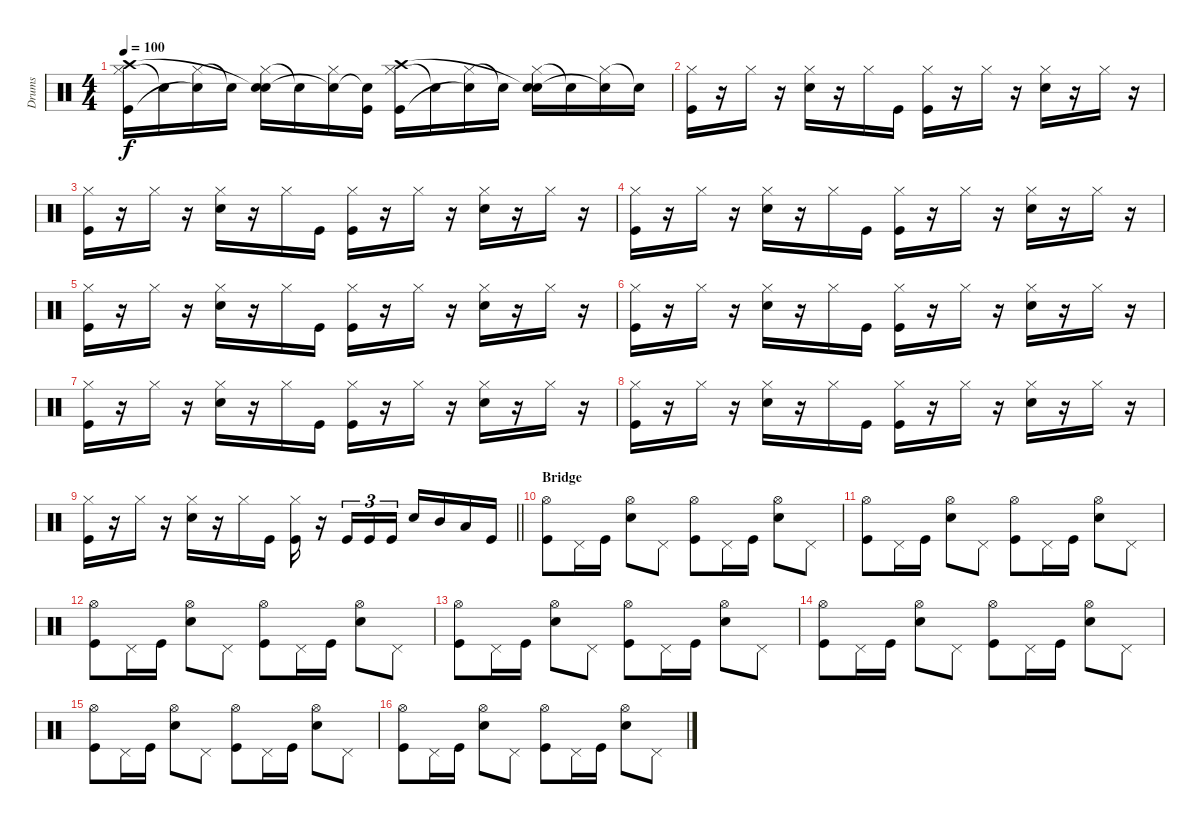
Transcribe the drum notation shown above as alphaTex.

\track ("Drums" "Drums") {instrument percussion}
\staff {score}
\articulation defaults
\ts (4 4)
\tempo 100
\clef neutral
\ks c
("Hi-Hat (closed)" "Kick (hit)" "Crash high (hit)").16{dy f} "Snare (hit)"{t}.16 ("Hi-Hat (closed)" "Snare (hit)"{t}).16 "Snare (hit)"{t}.16 ("Hi-Hat (closed)" "Snare (hit) 2" "Snare (hit)"{t}).16 "Snare (hit)"{t}.16 ("Hi-Hat (closed)" "Snare (hit)"{t}).16 ("Kick (hit)" "Snare (hit)"{t}).16 ("Hi-Hat (closed)" "Kick (hit)" "Crash high (hit)").16 "Snare (hit)"{t}.16 ("Hi-Hat (closed)" "Snare (hit)"{t}).16 "Snare (hit)"{t}.16 ("Hi-Hat (closed)" "Snare (hit) 2" "Snare (hit)"{t}).16 "Snare (hit)"{t}.16 ("Hi-Hat (closed)" "Snare (hit)"{t}).16 "Snare (hit)"{t}.16 |
("Hi-Hat (closed)" "Kick (hit)").16 r.16 "Hi-Hat (closed)".16 r.16 ("Hi-Hat (closed)" "Snare (hit) 2").16 r.16 "Hi-Hat (closed)".16 "Kick (hit)".16 ("Hi-Hat (closed)" "Kick (hit)").16 r.16 "Hi-Hat (closed)".16 r.16 ("Hi-Hat (closed)" "Snare (hit) 2").16 r.16 "Hi-Hat (closed)".16 r.16 |
("Hi-Hat (closed)" "Kick (hit)").16 r.16 "Hi-Hat (closed)".16 r.16 ("Hi-Hat (closed)" "Snare (hit) 2").16 r.16 "Hi-Hat (closed)".16 "Kick (hit)".16 ("Hi-Hat (closed)" "Kick (hit)").16 r.16 "Hi-Hat (closed)".16 r.16 ("Hi-Hat (closed)" "Snare (hit) 2").16 r.16 "Hi-Hat (closed)".16 r.16 |
("Hi-Hat (closed)" "Kick (hit)").16 r.16 "Hi-Hat (closed)".16 r.16 ("Hi-Hat (closed)" "Snare (hit) 2").16 r.16 "Hi-Hat (closed)".16 "Kick (hit)".16 ("Hi-Hat (closed)" "Kick (hit)").16 r.16 "Hi-Hat (closed)".16 r.16 ("Hi-Hat (closed)" "Snare (hit) 2").16 r.16 "Hi-Hat (closed)".16 r.16 |
("Hi-Hat (closed)" "Kick (hit)").16 r.16 "Hi-Hat (closed)".16 r.16 ("Hi-Hat (closed)" "Snare (hit) 2").16 r.16 "Hi-Hat (closed)".16 "Kick (hit)".16 ("Hi-Hat (closed)" "Kick (hit)").16 r.16 "Hi-Hat (closed)".16 r.16 ("Hi-Hat (closed)" "Snare (hit) 2").16 r.16 "Hi-Hat (closed)".16 r.16 |
("Hi-Hat (closed)" "Kick (hit)").16 r.16 "Hi-Hat (closed)".16 r.16 ("Hi-Hat (closed)" "Snare (hit) 2").16 r.16 "Hi-Hat (closed)".16 "Kick (hit)".16 ("Hi-Hat (closed)" "Kick (hit)").16 r.16 "Hi-Hat (closed)".16 r.16 ("Hi-Hat (closed)" "Snare (hit) 2").16 r.16 "Hi-Hat (closed)".16 r.16 |
("Hi-Hat (closed)" "Kick (hit)").16 r.16 "Hi-Hat (closed)".16 r.16 ("Hi-Hat (closed)" "Snare (hit) 2").16 r.16 "Hi-Hat (closed)".16 "Kick (hit)".16 ("Hi-Hat (closed)" "Kick (hit)").16 r.16 "Hi-Hat (closed)".16 r.16 ("Hi-Hat (closed)" "Snare (hit) 2").16 r.16 "Hi-Hat (closed)".16 r.16 |
("Hi-Hat (closed)" "Kick (hit)").16 r.16 "Hi-Hat (closed)".16 r.16 ("Hi-Hat (closed)" "Snare (hit) 2").16 r.16 "Hi-Hat (closed)".16 "Kick (hit)".16 ("Hi-Hat (closed)" "Kick (hit)").16 r.16 "Hi-Hat (closed)".16 r.16 ("Hi-Hat (closed)" "Snare (hit) 2").16 r.16 "Hi-Hat (closed)".16 r.16 |
\barLineRight lightlight
("Hi-Hat (closed)" "Kick (hit)").16 r.16 "Hi-Hat (closed)".16 r.16 ("Hi-Hat (closed)" "Snare (hit) 2").16 r.16 "Hi-Hat (closed)".16 "Kick (hit)".16 ("Hi-Hat (closed)" "Kick (hit)").16 r.16 "Kick (hit)".16{tu (3 2)} "Kick (hit)".16{tu (3 2)} "Kick (hit)".16{tu (3 2)} "Snare (hit) 2".16 "Mid Tom (hit)".16 "Low Tom (hit)".16 "Kick (hit)".16 |
\section ("" "Bridge")
("Hi-Hat (open)" "Kick (hit)").8 "Pedal Hi-Hat (hit)".16 "Kick (hit)".16 ("Hi-Hat (open)" "Snare (hit) 2").8 "Pedal Hi-Hat (hit)".8 ("Hi-Hat (open)" "Kick (hit)").8 "Pedal Hi-Hat (hit)".16 "Kick (hit)".16 ("Hi-Hat (open)" "Snare (hit) 2").8 "Pedal Hi-Hat (hit)".8 |
("Hi-Hat (open)" "Kick (hit)").8 "Pedal Hi-Hat (hit)".16 "Kick (hit)".16 ("Hi-Hat (open)" "Snare (hit) 2").8 "Pedal Hi-Hat (hit)".8 ("Hi-Hat (open)" "Kick (hit)").8 "Pedal Hi-Hat (hit)".16 "Kick (hit)".16 ("Hi-Hat (open)" "Snare (hit) 2").8 "Pedal Hi-Hat (hit)".8 |
("Hi-Hat (open)" "Kick (hit)").8 "Pedal Hi-Hat (hit)".16 "Kick (hit)".16 ("Hi-Hat (open)" "Snare (hit) 2").8 "Pedal Hi-Hat (hit)".8 ("Hi-Hat (open)" "Kick (hit)").8 "Pedal Hi-Hat (hit)".16 "Kick (hit)".16 ("Hi-Hat (open)" "Snare (hit) 2").8 "Pedal Hi-Hat (hit)".8 |
("Hi-Hat (open)" "Kick (hit)").8 "Pedal Hi-Hat (hit)".16 "Kick (hit)".16 ("Hi-Hat (open)" "Snare (hit) 2").8 "Pedal Hi-Hat (hit)".8 ("Hi-Hat (open)" "Kick (hit)").8 "Pedal Hi-Hat (hit)".16 "Kick (hit)".16 ("Hi-Hat (open)" "Snare (hit) 2").8 "Pedal Hi-Hat (hit)".8 |
("Hi-Hat (open)" "Kick (hit)").8 "Pedal Hi-Hat (hit)".16 "Kick (hit)".16 ("Hi-Hat (open)" "Snare (hit) 2").8 "Pedal Hi-Hat (hit)".8 ("Hi-Hat (open)" "Kick (hit)").8 "Pedal Hi-Hat (hit)".16 "Kick (hit)".16 ("Hi-Hat (open)" "Snare (hit) 2").8 "Pedal Hi-Hat (hit)".8 |
("Hi-Hat (open)" "Kick (hit)").8 "Pedal Hi-Hat (hit)".16 "Kick (hit)".16 ("Hi-Hat (open)" "Snare (hit) 2").8 "Pedal Hi-Hat (hit)".8 ("Hi-Hat (open)" "Kick (hit)").8 "Pedal Hi-Hat (hit)".16 "Kick (hit)".16 ("Hi-Hat (open)" "Snare (hit) 2").8 "Pedal Hi-Hat (hit)".8 |
("Hi-Hat (open)" "Kick (hit)").8 "Pedal Hi-Hat (hit)".16 "Kick (hit)".16 ("Hi-Hat (open)" "Snare (hit) 2").8 "Pedal Hi-Hat (hit)".8 ("Hi-Hat (open)" "Kick (hit)").8 "Pedal Hi-Hat (hit)".16 "Kick (hit)".16 ("Hi-Hat (open)" "Snare (hit) 2").8 "Pedal Hi-Hat (hit)".8
